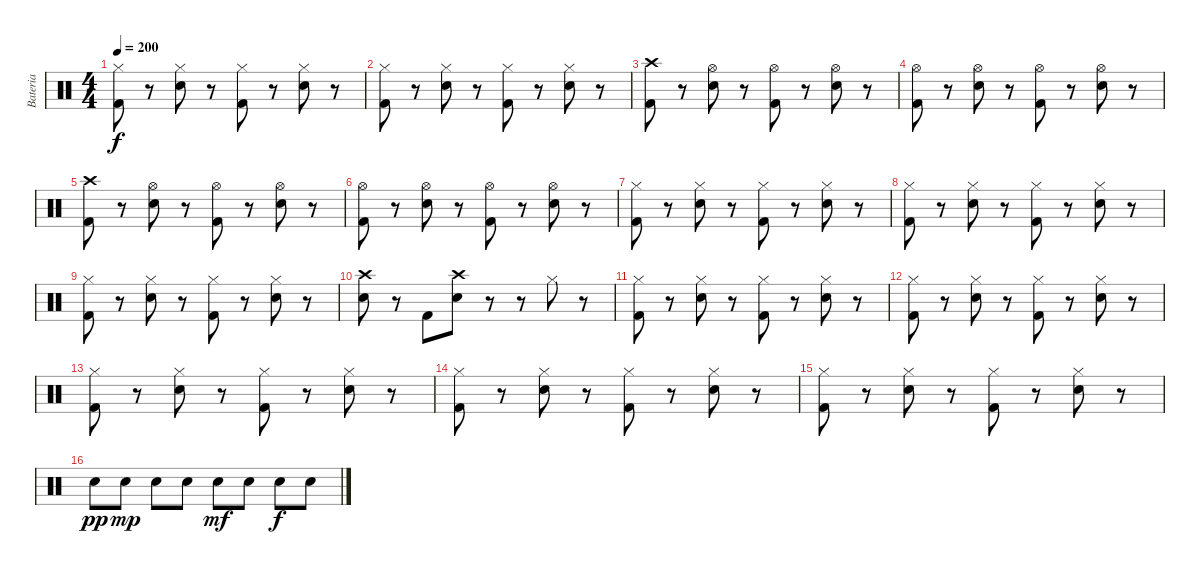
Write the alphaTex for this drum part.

\track ("Bateria" "Bateria") {instrument percussion}
\staff {score}
\articulation defaults
\ts (4 4)
\tempo 200
\clef neutral
\ks c
("Hi-Hat (closed)" "Kick (hit) 2").8{dy f} r.8 ("Hi-Hat (closed)" "Snare (hit) 2").8 r.8 ("Hi-Hat (closed)" "Kick (hit) 2").8 r.8 ("Hi-Hat (closed)" "Snare (hit) 2").8 r.8 |
("Hi-Hat (closed)" "Kick (hit) 2").8 r.8 ("Hi-Hat (closed)" "Snare (hit) 2").8 r.8 ("Hi-Hat (closed)" "Kick (hit) 2").8 r.8 ("Hi-Hat (closed)" "Snare (hit) 2").8 r.8 |
("Crash high (hit)" "Kick (hit) 2").8 r.8 ("Hi-Hat (open)" "Snare (hit) 2").8 r.8 ("Hi-Hat (open)" "Kick (hit) 2").8 r.8 ("Hi-Hat (open)" "Snare (hit) 2").8 r.8 |
("Hi-Hat (open)" "Kick (hit) 2").8 r.8 ("Hi-Hat (open)" "Snare (hit) 2").8 r.8 ("Hi-Hat (open)" "Kick (hit) 2").8 r.8 ("Hi-Hat (open)" "Snare (hit) 2").8 r.8 |
("Crash high (hit)" "Kick (hit) 2").8 r.8 ("Hi-Hat (open)" "Snare (hit) 2").8 r.8 ("Hi-Hat (open)" "Kick (hit) 2").8 r.8 ("Hi-Hat (open)" "Snare (hit) 2").8 r.8 |
("Hi-Hat (open)" "Kick (hit) 2").8 r.8 ("Hi-Hat (open)" "Snare (hit) 2").8 r.8 ("Hi-Hat (open)" "Kick (hit) 2").8 r.8 ("Hi-Hat (open)" "Snare (hit) 2").8 r.8 |
("Hi-Hat (closed)" "Kick (hit) 2").8 r.8 ("Hi-Hat (closed)" "Snare (hit) 2").8 r.8 ("Hi-Hat (closed)" "Kick (hit) 2").8 r.8 ("Hi-Hat (closed)" "Snare (hit) 2").8 r.8 |
("Hi-Hat (closed)" "Kick (hit) 2").8 r.8 ("Hi-Hat (closed)" "Snare (hit) 2").8 r.8 ("Hi-Hat (closed)" "Kick (hit) 2").8 r.8 ("Hi-Hat (closed)" "Snare (hit) 2").8 r.8 |
("Hi-Hat (closed)" "Kick (hit) 2").8 r.8 ("Hi-Hat (closed)" "Snare (hit) 2").8 r.8 ("Hi-Hat (closed)" "Kick (hit) 2").8 r.8 ("Hi-Hat (closed)" "Snare (hit) 2").8 r.8 |
("Crash high (hit)" "Snare (hit) 2").8 r.8 "Kick (hit) 2".8 ("Crash high (hit)" "Snare (hit) 2").8 r.8 r.8 "Hi-Hat (closed)".8 r.8 |
("Hi-Hat (closed)" "Kick (hit) 2").8 r.8 ("Hi-Hat (closed)" "Snare (hit) 2").8 r.8 ("Hi-Hat (closed)" "Kick (hit) 2").8 r.8 ("Hi-Hat (closed)" "Snare (hit) 2").8 r.8 |
("Hi-Hat (closed)" "Kick (hit) 2").8 r.8 ("Hi-Hat (closed)" "Snare (hit) 2").8 r.8 ("Hi-Hat (closed)" "Kick (hit) 2").8 r.8 ("Hi-Hat (closed)" "Snare (hit) 2").8 r.8 |
("Hi-Hat (closed)" "Kick (hit) 2").8 r.8 ("Hi-Hat (closed)" "Snare (hit) 2").8 r.8 ("Hi-Hat (closed)" "Kick (hit) 2").8 r.8 ("Hi-Hat (closed)" "Snare (hit) 2").8 r.8 |
("Hi-Hat (closed)" "Kick (hit) 2").8 r.8 ("Hi-Hat (closed)" "Snare (hit) 2").8 r.8 ("Hi-Hat (closed)" "Kick (hit) 2").8 r.8 ("Hi-Hat (closed)" "Snare (hit) 2").8 r.8 |
("Hi-Hat (closed)" "Kick (hit) 2").8 r.8 ("Hi-Hat (closed)" "Snare (hit) 2").8 r.8 ("Hi-Hat (closed)" "Kick (hit) 2").8 r.8 ("Hi-Hat (closed)" "Snare (hit) 2").8 r.8 |
"Snare (hit) 2".8{dy pp} "Snare (hit) 2".8{dy mp} "Snare (hit) 2".8 "Snare (hit) 2".8 "Snare (hit) 2".8{dy mf} "Snare (hit) 2".8 "Snare (hit) 2".8{dy f} "Snare (hit) 2".8
